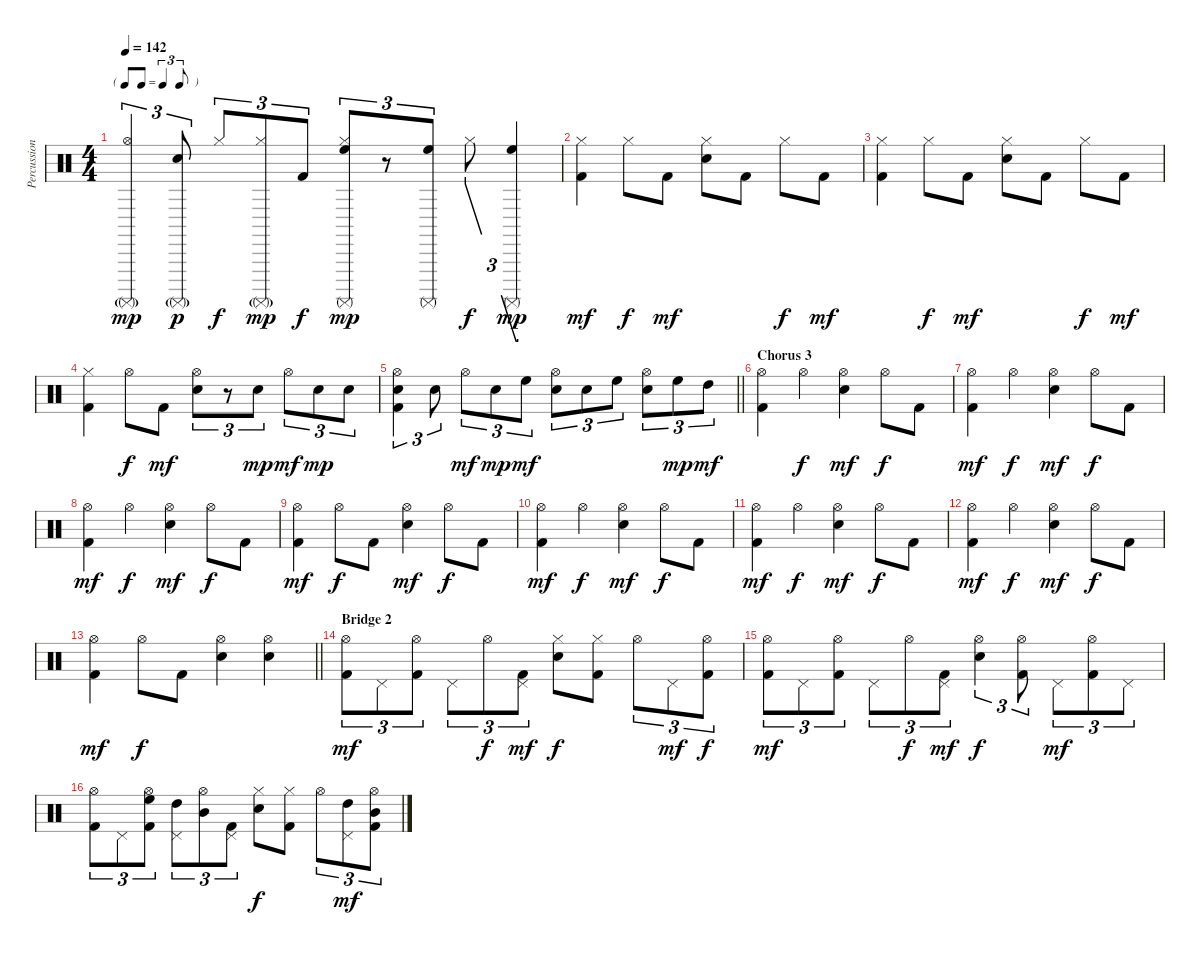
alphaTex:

\track ("Percussion" "Percussion") {instrument percussion}
\staff {score}
\articulation defaults
\ts (4 4)
\tf triplet8th
\tempo 142
\clef neutral
\ks c
("Surdo (mute)"{g} "Hi-Hat (open)").4{tu (3 2) dy mp} ("Surdo (mute)"{g} "Electric Snare (hit)").8{tu (3 2) dy p} "Hi-Hat (closed)".8{tu (3 2) dy f} ("Surdo (mute)"{g} "Hi-Hat (closed)").8{tu (3 2) dy mp} "Kick (hit) 2".8{tu (3 2) dy f} ("Hi-Hat (closed)" "High Floor Tom (hit)" "Surdo (mute)").8{tu (3 2) dy mp} r.8{tu (3 2)} ("High Floor Tom (hit)" "Surdo (mute)").8{tu (3 2)} "Hi-Hat (closed)".8{tu (3 2) dy f} ("High Floor Tom (hit)" "Surdo (mute)").4{tu (3 2) dy mp} |
("Hi-Hat (closed)" "Kick (hit) 2").4{dy mf} "Hi-Hat (closed)".8{dy f} "Kick (hit) 2".8{dy mf} ("Hi-Hat (closed)" "Electric Snare (hit)").8 "Kick (hit) 2".8 "Hi-Hat (closed)".8{dy f} "Kick (hit) 2".8{dy mf} |
("Hi-Hat (closed)" "Kick (hit) 2").4 "Hi-Hat (closed)".8{dy f} "Kick (hit) 2".8{dy mf} ("Hi-Hat (closed)" "Electric Snare (hit)").8 "Kick (hit) 2".8 "Hi-Hat (closed)".8{dy f} "Kick (hit) 2".8{dy mf} |
("Hi-Hat (closed)" "Kick (hit) 2").4 "Hi-Hat (open)".8{dy f} "Kick (hit) 2".8{dy mf} ("Hi-Hat (open)" "Electric Snare (hit)").8{tu (3 2)} r.8{tu (3 2)} "Electric Snare (hit)".8{tu (3 2) dy mp} "Hi-Hat (open)".8{tu (3 2) dy mf} "Electric Snare (hit)".8{tu (3 2) dy mp} "Electric Snare (hit)".8{tu (3 2)} |
\barLineRight lightlight
("Hi-Hat (open)" "Electric Snare (hit)" "Kick (hit) 2").4{tu (3 2)} "Electric Snare (hit)".8{tu (3 2)} "Hi-Hat (open)".8{tu (3 2) dy mf} "Electric Snare (hit)".8{tu (3 2) dy mp} "High Floor Tom (hit)".8{tu (3 2) dy mf} ("Hi-Hat (open)" "Electric Snare (hit)").8{tu (3 2)} "Electric Snare (hit)".8{tu (3 2)} "High Floor Tom (hit)".8{tu (3 2)} ("Hi-Hat (open)" "Electric Snare (hit)").8{tu (3 2)} "High Floor Tom (hit)".8{tu (3 2) dy mp} "High Tom (hit)".8{tu (3 2) dy mf} |
\section ("" "Chorus 3")
("Hi-Hat (open)" "Kick (hit) 2").4 "Hi-Hat (open)".4{dy f} ("Hi-Hat (open)" "Electric Snare (hit)").4{dy mf} "Hi-Hat (open)".8{dy f} "Kick (hit) 2".8 |
("Hi-Hat (open)" "Kick (hit) 2").4{dy mf} "Hi-Hat (open)".4{dy f} ("Hi-Hat (open)" "Electric Snare (hit)").4{dy mf} "Hi-Hat (open)".8{dy f} "Kick (hit) 2".8 |
("Hi-Hat (open)" "Kick (hit) 2").4{dy mf} "Hi-Hat (open)".4{dy f} ("Hi-Hat (open)" "Electric Snare (hit)").4{dy mf} "Hi-Hat (open)".8{dy f} "Kick (hit) 2".8 |
("Hi-Hat (open)" "Kick (hit) 2").4{dy mf} "Hi-Hat (open)".8{dy f} "Kick (hit) 2".8 ("Hi-Hat (open)" "Electric Snare (hit)").4{dy mf} "Hi-Hat (open)".8{dy f} "Kick (hit) 2".8 |
("Hi-Hat (open)" "Kick (hit) 2").4{dy mf} "Hi-Hat (open)".4{dy f} ("Hi-Hat (open)" "Electric Snare (hit)").4{dy mf} "Hi-Hat (open)".8{dy f} "Kick (hit) 2".8 |
("Hi-Hat (open)" "Kick (hit) 2").4{dy mf} "Hi-Hat (open)".4{dy f} ("Hi-Hat (open)" "Electric Snare (hit)").4{dy mf} "Hi-Hat (open)".8{dy f} "Kick (hit) 2".8 |
("Hi-Hat (open)" "Kick (hit) 2").4{dy mf} "Hi-Hat (open)".4{dy f} ("Hi-Hat (open)" "Electric Snare (hit)").4{dy mf} "Hi-Hat (open)".8{dy f} "Kick (hit) 2".8 |
\barLineRight lightlight
("Hi-Hat (open)" "Kick (hit) 2").4{dy mf} "Hi-Hat (open)".8{dy f} "Kick (hit) 2".8 ("Hi-Hat (open)" "Electric Snare (hit)").4 ("Hi-Hat (open)" "Electric Snare (hit)").4 |
\section ("" "Bridge 2")
("Hi-Hat (open)" "Kick (hit) 2").8{tu (3 2) dy mf} "Pedal Hi-Hat (hit)".8{tu (3 2)} ("Hi-Hat (open)" "Kick (hit) 2").8{tu (3 2)} "Pedal Hi-Hat (hit)".8{tu (3 2)} "Hi-Hat (open)".8{tu (3 2) dy f} ("Pedal Hi-Hat (hit)" "Kick (hit) 2").8{tu (3 2) dy mf} ("Hi-Hat (closed)" "Electric Snare (hit)").8{dy f} ("Hi-Hat (closed)" "Kick (hit) 2").8 "Hi-Hat (open)".8{tu (3 2)} "Pedal Hi-Hat (hit)".8{tu (3 2) dy mf} ("Hi-Hat (open)" "Kick (hit) 2").8{tu (3 2) dy f} |
("Hi-Hat (open)" "Kick (hit) 2").8{tu (3 2) dy mf} "Pedal Hi-Hat (hit)".8{tu (3 2)} ("Hi-Hat (open)" "Kick (hit) 2").8{tu (3 2)} "Pedal Hi-Hat (hit)".8{tu (3 2)} "Hi-Hat (open)".8{tu (3 2) dy f} ("Pedal Hi-Hat (hit)" "Kick (hit) 2").8{tu (3 2) dy mf} ("Hi-Hat (open)" "Electric Snare (hit)").4{tu (3 2) dy f} ("Hi-Hat (open)" "Kick (hit) 2").8{tu (3 2)} "Pedal Hi-Hat (hit)".8{tu (3 2) dy mf} ("Hi-Hat (open)" "Kick (hit) 2").8{tu (3 2)} "Pedal Hi-Hat (hit)".8{tu (3 2)} |
("Hi-Hat (open)" "Kick (hit) 2").8{tu (3 2)} "Pedal Hi-Hat (hit)".8{tu (3 2)} ("Hi-Hat (open)" "High Floor Tom (hit)" "Kick (hit) 2").8{tu (3 2)} ("Pedal Hi-Hat (hit)" "High Tom (hit)").8{tu (3 2)} ("Hi-Hat (open)" "Mid Tom (hit)").8{tu (3 2)} ("Pedal Hi-Hat (hit)" "Kick (hit) 2").8{tu (3 2)} ("Hi-Hat (closed)" "Electric Snare (hit)").8{dy f} ("Hi-Hat (closed)" "Kick (hit) 2").8 "Hi-Hat (open)".8{tu (3 2)} ("Pedal Hi-Hat (hit)" "High Tom (hit)").8{tu (3 2) dy mf} ("Hi-Hat (open)" "Mid Tom (hit)" "Kick (hit) 2").8{tu (3 2)}
